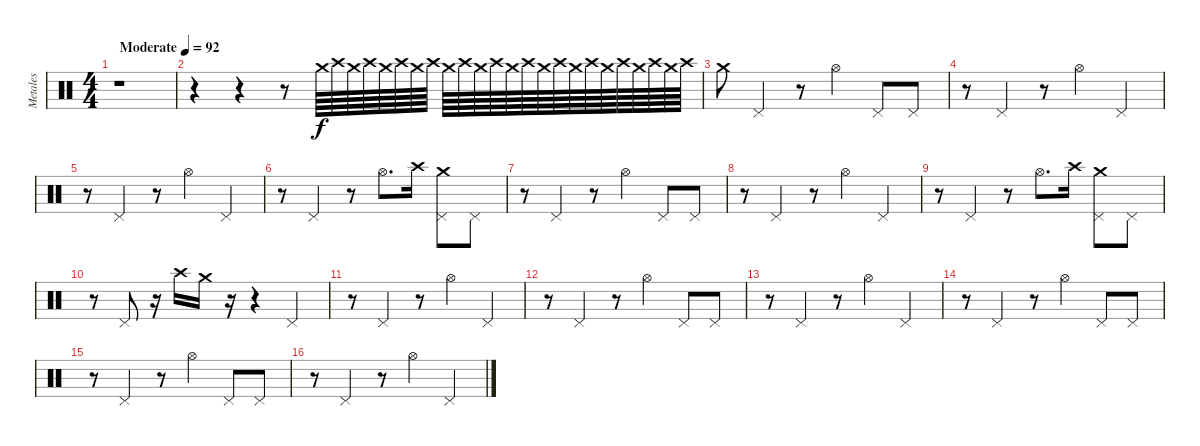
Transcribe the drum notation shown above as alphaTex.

\track ("Metales" "Metales") {instrument percussion}
\staff {score}
\articulation defaults
\ts (4 4)
\tempo (92 "Moderate")
\clef neutral
\ks c
r.1{dy f} |
r.4 r.4 r.8 "Crash medium (hit)".64 "Crash high (hit)".64 "Crash medium (hit)".64 "Crash high (hit)".64 "Crash medium (hit)".64 "Crash high (hit)".64 "Crash medium (hit)".64 "Crash high (hit)".64 "Crash medium (hit)".64 "Crash high (hit)".64 "Crash medium (hit)".64 "Crash high (hit)".64 "Crash medium (hit)".64 "Crash high (hit)".64 "Crash medium (hit)".64 "Crash high (hit)".64 "Crash medium (hit)".64 "Crash high (hit)".64 "Crash medium (hit)".64 "Crash high (hit)".64 "Crash medium (hit)".64 "Crash high (hit)".64 "Crash medium (hit)".64 "Crash high (hit)".64 |
"Crash medium (hit)".8 "Pedal Hi-Hat (hit)".4 r.8 "Hi-Hat (open)".4 "Pedal Hi-Hat (hit)".8 "Pedal Hi-Hat (hit)".8 |
r.8 "Pedal Hi-Hat (hit)".4 r.8 "Hi-Hat (open)".4 "Pedal Hi-Hat (hit)".4 |
r.8 "Pedal Hi-Hat (hit)".4 r.8 "Hi-Hat (open)".4 "Pedal Hi-Hat (hit)".4 |
r.8 "Pedal Hi-Hat (hit)".4 r.8 "Hi-Hat (open)".8{d} "Crash high (hit)".16 ("Crash medium (hit)" "Pedal Hi-Hat (hit)").8 "Pedal Hi-Hat (hit)".8 |
r.8 "Pedal Hi-Hat (hit)".4 r.8 "Hi-Hat (open)".4 "Pedal Hi-Hat (hit)".8 "Pedal Hi-Hat (hit)".8 |
r.8 "Pedal Hi-Hat (hit)".4 r.8 "Hi-Hat (open)".4 "Pedal Hi-Hat (hit)".4 |
r.8 "Pedal Hi-Hat (hit)".4 r.8 "Hi-Hat (open)".8{d} "Crash high (hit)".16 ("Crash medium (hit)" "Pedal Hi-Hat (hit)").8 "Pedal Hi-Hat (hit)".8 |
r.8 "Pedal Hi-Hat (hit)".8 r.16 "Crash high (hit)".16 "Crash medium (hit)".16 r.16 r.4 "Pedal Hi-Hat (hit)".4 |
r.8 "Pedal Hi-Hat (hit)".4 r.8 "Hi-Hat (open)".4 "Pedal Hi-Hat (hit)".4 |
r.8 "Pedal Hi-Hat (hit)".4 r.8 "Hi-Hat (open)".4 "Pedal Hi-Hat (hit)".8 "Pedal Hi-Hat (hit)".8 |
r.8 "Pedal Hi-Hat (hit)".4 r.8 "Hi-Hat (open)".4 "Pedal Hi-Hat (hit)".4 |
r.8 "Pedal Hi-Hat (hit)".4 r.8 "Hi-Hat (open)".4 "Pedal Hi-Hat (hit)".8 "Pedal Hi-Hat (hit)".8 |
r.8 "Pedal Hi-Hat (hit)".4 r.8 "Hi-Hat (open)".4 "Pedal Hi-Hat (hit)".8 "Pedal Hi-Hat (hit)".8 |
r.8 "Pedal Hi-Hat (hit)".4 r.8 "Hi-Hat (open)".4 "Pedal Hi-Hat (hit)".4
